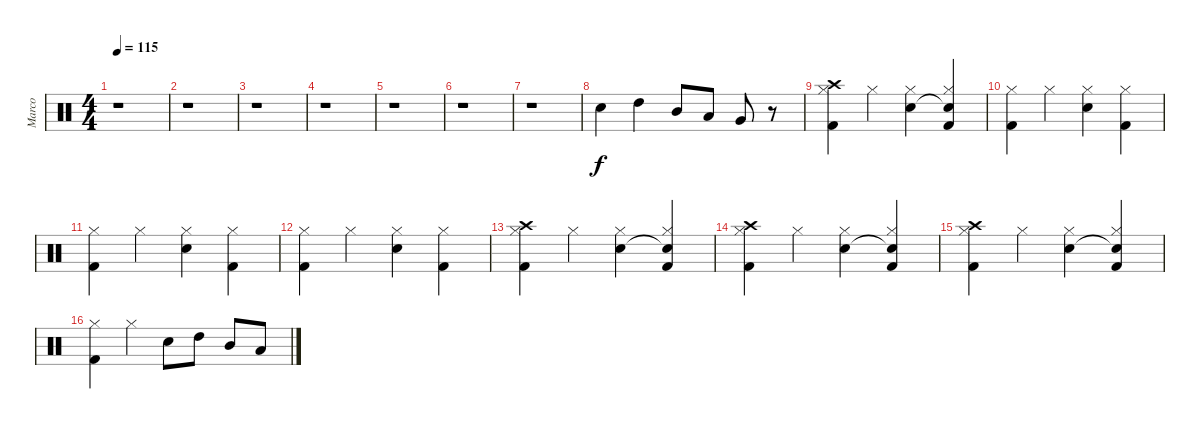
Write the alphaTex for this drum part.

\track ("Marco" "Marco") {instrument percussion}
\staff {score}
\articulation defaults
\ts (4 4)
\tempo 115
\clef neutral
\ks c
r.1{dy f} |
r.1 |
r.1 |
r.1 |
r.1 |
r.1 |
r.1 |
"Snare (hit) 2".4 "High Tom (hit)".4 "Mid Tom (hit)".8 "Low Tom (hit)".8 "Very Low Tom (hit)".8 r.8 |
("Hi-Hat (closed)" "Crash high (hit)" "Kick (hit) 2").4 "Hi-Hat (closed)".4 ("Hi-Hat (closed)" "Snare (hit) 2").4 ("Hi-Hat (closed)" "Snare (hit)"{t} "Kick (hit) 2").4 |
("Hi-Hat (closed)" "Kick (hit) 2").4 "Hi-Hat (closed)".4 ("Hi-Hat (closed)" "Snare (hit) 2").4 ("Hi-Hat (closed)" "Kick (hit) 2").4 |
("Hi-Hat (closed)" "Kick (hit) 2").4 "Hi-Hat (closed)".4 ("Hi-Hat (closed)" "Snare (hit) 2").4 ("Hi-Hat (closed)" "Kick (hit) 2").4 |
("Hi-Hat (closed)" "Kick (hit) 2").4 "Hi-Hat (closed)".4 ("Hi-Hat (closed)" "Snare (hit) 2").4 ("Hi-Hat (closed)" "Kick (hit) 2").4 |
("Hi-Hat (closed)" "Crash high (hit)" "Kick (hit) 2").4 "Hi-Hat (closed)".4 ("Hi-Hat (closed)" "Snare (hit) 2").4 ("Hi-Hat (closed)" "Snare (hit)"{t} "Kick (hit) 2").4 |
("Hi-Hat (closed)" "Crash high (hit)" "Kick (hit) 2").4 "Hi-Hat (closed)".4 ("Hi-Hat (closed)" "Snare (hit) 2").4 ("Hi-Hat (closed)" "Snare (hit)"{t} "Kick (hit) 2").4 |
("Hi-Hat (closed)" "Crash high (hit)" "Kick (hit) 2").4 "Hi-Hat (closed)".4 ("Hi-Hat (closed)" "Snare (hit) 2").4 ("Hi-Hat (closed)" "Snare (hit)"{t} "Kick (hit) 2").4 |
("Hi-Hat (closed)" "Kick (hit) 2").4 "Hi-Hat (closed)".4 "Snare (hit) 2".8 "High Tom (hit)".8 "Mid Tom (hit)".8 "Low Tom (hit)".8
